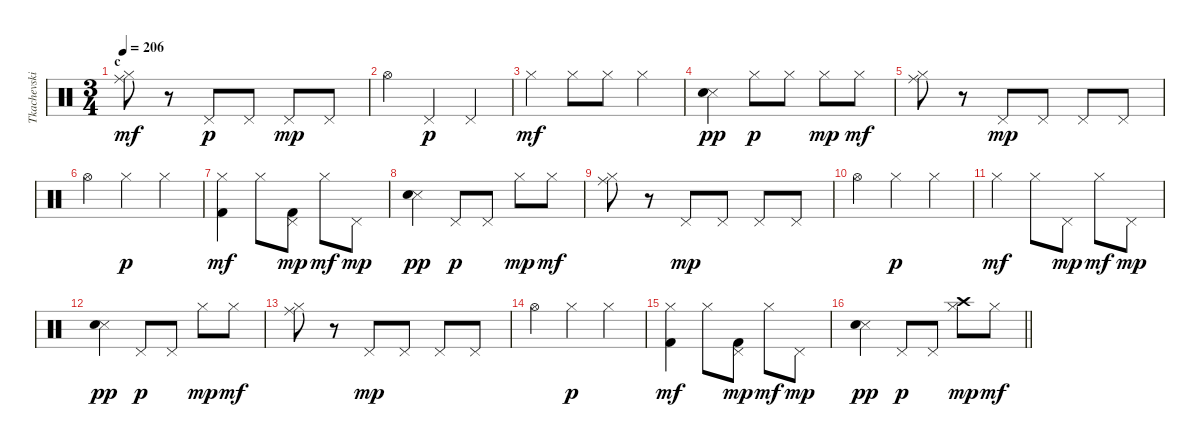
\track ("Tkachevskiy A" "Tkachevski") {instrument percussion}
\staff {score}
\articulation defaults
\ts (3 4)
\section ("" "c")
\tempo 206
\clef neutral
\ks c
("Hi-Hat (closed)" "Ride (middle)").8{dy mf} r.8 "Pedal Hi-Hat (hit)".8{dy p} "Pedal Hi-Hat (hit)".8 "Pedal Hi-Hat (hit)".8{dy mp} "Pedal Hi-Hat (hit)".8 |
"Hi-Hat (open)".4 "Pedal Hi-Hat (hit)".4{dy p} "Pedal Hi-Hat (hit)".4 |
"Hi-Hat (closed)".4{dy mf} "Hi-Hat (closed)".8 "Hi-Hat (closed)".8 "Hi-Hat (closed)".4 |
("Snare (side stick) 3" "Snare (hit) 2").4{dy pp} "Hi-Hat (closed)".8{dy p} "Hi-Hat (closed)".8 "Hi-Hat (closed)".8{dy mp} "Hi-Hat (closed)".8{dy mf} |
("Hi-Hat (closed)" "Ride (middle)").8 r.8 "Pedal Hi-Hat (hit)".8{dy mp} "Pedal Hi-Hat (hit)".8 "Pedal Hi-Hat (hit)".8 "Pedal Hi-Hat (hit)".8 |
"Hi-Hat (open)".4 "Hi-Hat (closed)".4{dy p} "Hi-Hat (closed)".4 |
("Hi-Hat (closed)" "Kick (hit) 2").4{dy mf} "Hi-Hat (closed)".8 ("Pedal Hi-Hat (hit)" "Kick (hit) 2").8{dy mp} "Hi-Hat (closed)".8{dy mf} "Pedal Hi-Hat (hit)".8{dy mp} |
("Snare (side stick) 3" "Snare (hit) 2").4{dy pp} "Pedal Hi-Hat (hit)".8{dy p} "Pedal Hi-Hat (hit)".8 "Hi-Hat (closed)".8{dy mp} "Hi-Hat (closed)".8{dy mf} |
("Hi-Hat (closed)" "Ride (middle)").8 r.8 "Pedal Hi-Hat (hit)".8{dy mp} "Pedal Hi-Hat (hit)".8 "Pedal Hi-Hat (hit)".8 "Pedal Hi-Hat (hit)".8 |
"Hi-Hat (open)".4 "Hi-Hat (closed)".4{dy p} "Hi-Hat (closed)".4 |
"Hi-Hat (closed)".4{dy mf} "Hi-Hat (closed)".8 "Pedal Hi-Hat (hit)".8{dy mp} "Hi-Hat (closed)".8{dy mf} "Pedal Hi-Hat (hit)".8{dy mp} |
("Snare (side stick) 3" "Snare (hit) 2").4{dy pp} "Pedal Hi-Hat (hit)".8{dy p} "Pedal Hi-Hat (hit)".8 "Hi-Hat (closed)".8{dy mp} "Hi-Hat (closed)".8{dy mf} |
("Hi-Hat (closed)" "Ride (middle)").8 r.8 "Pedal Hi-Hat (hit)".8{dy mp} "Pedal Hi-Hat (hit)".8 "Pedal Hi-Hat (hit)".8 "Pedal Hi-Hat (hit)".8 |
"Hi-Hat (open)".4 "Hi-Hat (closed)".4{dy p} "Hi-Hat (closed)".4 |
("Hi-Hat (closed)" "Kick (hit) 2").4{dy mf} "Hi-Hat (closed)".8 ("Pedal Hi-Hat (hit)" "Kick (hit) 2").8{dy mp} "Hi-Hat (closed)".8{dy mf} "Pedal Hi-Hat (hit)".8{dy mp} |
\barLineRight lightlight
("Snare (side stick) 3" "Snare (hit) 2").4{dy pp} "Pedal Hi-Hat (hit)".8{dy p} "Pedal Hi-Hat (hit)".8 ("Hi-Hat (closed)" "Crash high (hit)").8{dy mp} "Hi-Hat (closed)".8{dy mf}
